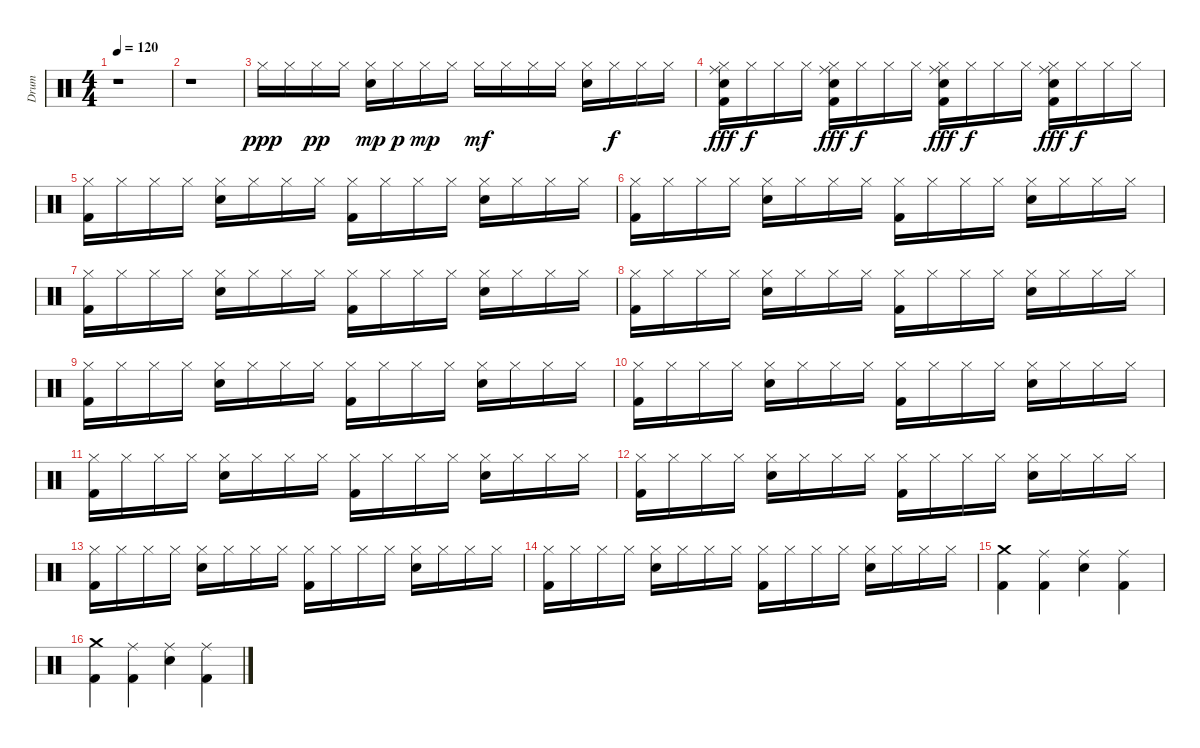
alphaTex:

\track ("Drum" "Drum") {instrument percussion}
\staff {score}
\articulation defaults
\ts (4 4)
\tempo 120
\clef neutral
\ks c
r.1{dy ppp} |
r.1 |
"Hi-Hat (closed)".16 "Hi-Hat (closed)".16 "Hi-Hat (closed)".16{dy pp} "Hi-Hat (closed)".16 ("Hi-Hat (closed)" "Snare (hit) 2").16{dy mp} "Hi-Hat (closed)".16{dy p} "Hi-Hat (closed)".16{dy mp} "Hi-Hat (closed)".16 "Hi-Hat (closed)".16{dy mf} "Hi-Hat (closed)".16 "Hi-Hat (closed)".16 "Hi-Hat (closed)".16 ("Hi-Hat (closed)" "Snare (hit) 2").16 "Hi-Hat (closed)".16{dy f} "Hi-Hat (closed)".16 "Hi-Hat (closed)".16 |
("Hi-Hat (closed)" "Ride (middle)" "Snare (hit) 2" "Kick (hit) 2").16{dy fff} "Hi-Hat (closed)".16{dy f} "Hi-Hat (closed)".16 "Hi-Hat (closed)".16 ("Hi-Hat (closed)" "Ride (middle)" "Snare (hit) 2" "Kick (hit) 2").16{dy fff} "Hi-Hat (closed)".16{dy f} "Hi-Hat (closed)".16 "Hi-Hat (closed)".16 ("Hi-Hat (closed)" "Ride (middle)" "Snare (hit) 2" "Kick (hit) 2").16{dy fff} "Hi-Hat (closed)".16{dy f} "Hi-Hat (closed)".16 "Hi-Hat (closed)".16 ("Hi-Hat (closed)" "Ride (middle)" "Snare (hit) 2" "Kick (hit) 2").16{dy fff} "Hi-Hat (closed)".16{dy f} "Hi-Hat (closed)".16 "Hi-Hat (closed)".16 |
("Hi-Hat (closed)" "Kick (hit) 2").16 "Hi-Hat (closed)".16 "Hi-Hat (closed)".16 "Hi-Hat (closed)".16 ("Hi-Hat (closed)" "Snare (hit) 2").16 "Hi-Hat (closed)".16 "Hi-Hat (closed)".16 "Hi-Hat (closed)".16 ("Hi-Hat (closed)" "Kick (hit) 2").16 "Hi-Hat (closed)".16 "Hi-Hat (closed)".16 "Hi-Hat (closed)".16 ("Hi-Hat (closed)" "Snare (hit) 2").16 "Hi-Hat (closed)".16 "Hi-Hat (closed)".16 "Hi-Hat (closed)".16 |
("Hi-Hat (closed)" "Kick (hit) 2").16 "Hi-Hat (closed)".16 "Hi-Hat (closed)".16 "Hi-Hat (closed)".16 ("Hi-Hat (closed)" "Snare (hit) 2").16 "Hi-Hat (closed)".16 "Hi-Hat (closed)".16 "Hi-Hat (closed)".16 ("Hi-Hat (closed)" "Kick (hit) 2").16 "Hi-Hat (closed)".16 "Hi-Hat (closed)".16 "Hi-Hat (closed)".16 ("Hi-Hat (closed)" "Snare (hit) 2").16 "Hi-Hat (closed)".16 "Hi-Hat (closed)".16 "Hi-Hat (closed)".16 |
("Hi-Hat (closed)" "Kick (hit) 2").16 "Hi-Hat (closed)".16 "Hi-Hat (closed)".16 "Hi-Hat (closed)".16 ("Hi-Hat (closed)" "Snare (hit) 2").16 "Hi-Hat (closed)".16 "Hi-Hat (closed)".16 "Hi-Hat (closed)".16 ("Hi-Hat (closed)" "Kick (hit) 2").16 "Hi-Hat (closed)".16 "Hi-Hat (closed)".16 "Hi-Hat (closed)".16 ("Hi-Hat (closed)" "Snare (hit) 2").16 "Hi-Hat (closed)".16 "Hi-Hat (closed)".16 "Hi-Hat (closed)".16 |
("Hi-Hat (closed)" "Kick (hit) 2").16 "Hi-Hat (closed)".16 "Hi-Hat (closed)".16 "Hi-Hat (closed)".16 ("Hi-Hat (closed)" "Snare (hit) 2").16 "Hi-Hat (closed)".16 "Hi-Hat (closed)".16 "Hi-Hat (closed)".16 ("Hi-Hat (closed)" "Kick (hit) 2").16 "Hi-Hat (closed)".16 "Hi-Hat (closed)".16 "Hi-Hat (closed)".16 ("Hi-Hat (closed)" "Snare (hit) 2").16 "Hi-Hat (closed)".16 "Hi-Hat (closed)".16 "Hi-Hat (closed)".16 |
("Hi-Hat (closed)" "Kick (hit) 2").16 "Hi-Hat (closed)".16 "Hi-Hat (closed)".16 "Hi-Hat (closed)".16 ("Hi-Hat (closed)" "Snare (hit) 2").16 "Hi-Hat (closed)".16 "Hi-Hat (closed)".16 "Hi-Hat (closed)".16 ("Hi-Hat (closed)" "Kick (hit) 2").16 "Hi-Hat (closed)".16 "Hi-Hat (closed)".16 "Hi-Hat (closed)".16 ("Hi-Hat (closed)" "Snare (hit) 2").16 "Hi-Hat (closed)".16 "Hi-Hat (closed)".16 "Hi-Hat (closed)".16 |
("Hi-Hat (closed)" "Kick (hit) 2").16 "Hi-Hat (closed)".16 "Hi-Hat (closed)".16 "Hi-Hat (closed)".16 ("Hi-Hat (closed)" "Snare (hit) 2").16 "Hi-Hat (closed)".16 "Hi-Hat (closed)".16 "Hi-Hat (closed)".16 ("Hi-Hat (closed)" "Kick (hit) 2").16 "Hi-Hat (closed)".16 "Hi-Hat (closed)".16 "Hi-Hat (closed)".16 ("Hi-Hat (closed)" "Snare (hit) 2").16 "Hi-Hat (closed)".16 "Hi-Hat (closed)".16 "Hi-Hat (closed)".16 |
("Hi-Hat (closed)" "Kick (hit) 2").16 "Hi-Hat (closed)".16 "Hi-Hat (closed)".16 "Hi-Hat (closed)".16 ("Hi-Hat (closed)" "Snare (hit) 2").16 "Hi-Hat (closed)".16 "Hi-Hat (closed)".16 "Hi-Hat (closed)".16 ("Hi-Hat (closed)" "Kick (hit) 2").16 "Hi-Hat (closed)".16 "Hi-Hat (closed)".16 "Hi-Hat (closed)".16 ("Hi-Hat (closed)" "Snare (hit) 2").16 "Hi-Hat (closed)".16 "Hi-Hat (closed)".16 "Hi-Hat (closed)".16 |
("Hi-Hat (closed)" "Kick (hit) 2").16 "Hi-Hat (closed)".16 "Hi-Hat (closed)".16 "Hi-Hat (closed)".16 ("Hi-Hat (closed)" "Snare (hit) 2").16 "Hi-Hat (closed)".16 "Hi-Hat (closed)".16 "Hi-Hat (closed)".16 ("Hi-Hat (closed)" "Kick (hit) 2").16 "Hi-Hat (closed)".16 "Hi-Hat (closed)".16 "Hi-Hat (closed)".16 ("Hi-Hat (closed)" "Snare (hit) 2").16 "Hi-Hat (closed)".16 "Hi-Hat (closed)".16 "Hi-Hat (closed)".16 |
("Hi-Hat (closed)" "Kick (hit) 2").16 "Hi-Hat (closed)".16 "Hi-Hat (closed)".16 "Hi-Hat (closed)".16 ("Hi-Hat (closed)" "Snare (hit) 2").16 "Hi-Hat (closed)".16 "Hi-Hat (closed)".16 "Hi-Hat (closed)".16 ("Hi-Hat (closed)" "Kick (hit) 2").16 "Hi-Hat (closed)".16 "Hi-Hat (closed)".16 "Hi-Hat (closed)".16 ("Hi-Hat (closed)" "Snare (hit) 2").16 "Hi-Hat (closed)".16 "Hi-Hat (closed)".16 "Hi-Hat (closed)".16 |
("Hi-Hat (closed)" "Kick (hit) 2").16 "Hi-Hat (closed)".16 "Hi-Hat (closed)".16 "Hi-Hat (closed)".16 ("Hi-Hat (closed)" "Snare (hit) 2").16 "Hi-Hat (closed)".16 "Hi-Hat (closed)".16 "Hi-Hat (closed)".16 ("Hi-Hat (closed)" "Kick (hit) 2").16 "Hi-Hat (closed)".16 "Hi-Hat (closed)".16 "Hi-Hat (closed)".16 ("Hi-Hat (closed)" "Snare (hit) 2").16 "Hi-Hat (closed)".16 "Hi-Hat (closed)".16 "Hi-Hat (closed)".16 |
("Crash medium (hit)" "Kick (hit) 2").4 ("Ride (middle)" "Kick (hit) 2").4 ("Ride (middle)" "Snare (hit) 2").4 ("Ride (middle)" "Kick (hit) 2").4 |
("Crash medium (hit)" "Kick (hit) 2").4 ("Ride (middle)" "Kick (hit) 2").4 ("Ride (middle)" "Snare (hit) 2").4 ("Ride (middle)" "Kick (hit) 2").4
